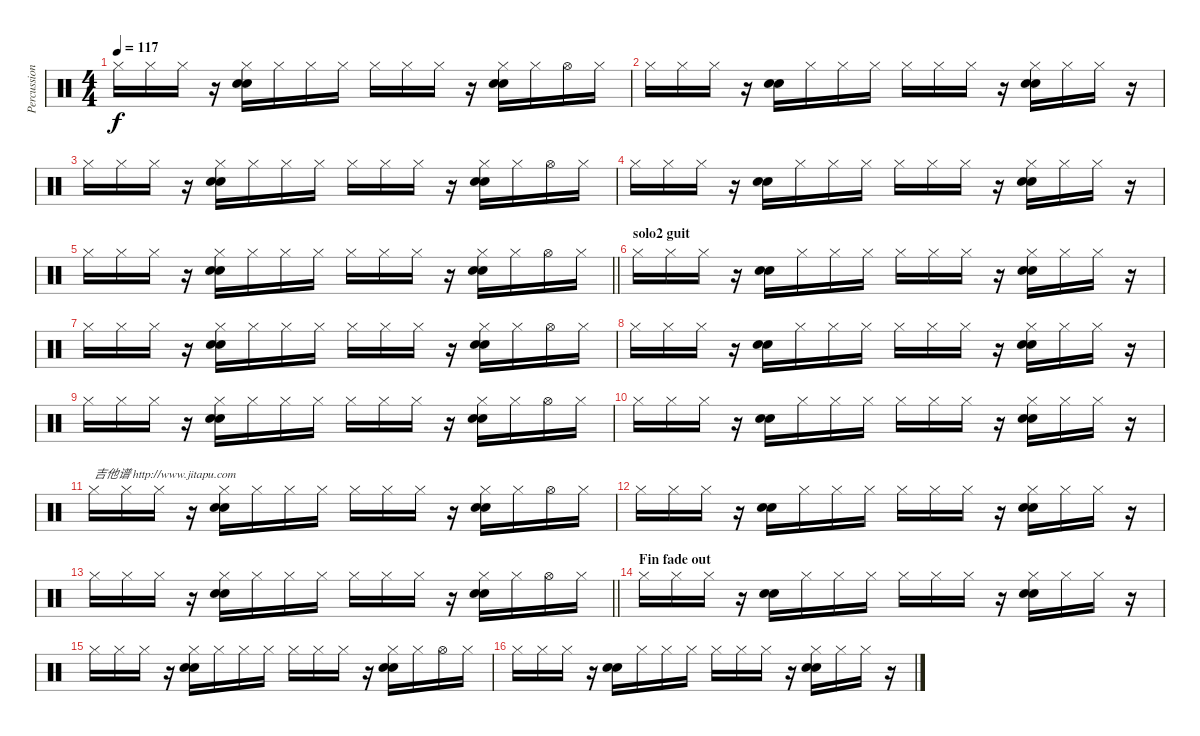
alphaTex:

\track ("Percussions" "Percussion") {instrument percussion}
\staff {score}
\articulation defaults
\ts (4 4)
\tempo 117
\clef neutral
\ks c "Hi-Hat (closed)".16{dy f} "Hi-Hat (closed)".16 "Hi-Hat (closed)".16
r.16 ("Hi-Hat (closed)" "Electric Snare (hit)" "Hand Clap (hit)").16 "Hi-Hat (closed)".16 "Hi-Hat (closed)".16 "Hi-Hat (closed)".16 "Hi-Hat (closed)".16 "Hi-Hat (closed)".16 "Hi-Hat (closed)".16 r.16 ("Hi-Hat (closed)" "Hand Clap (hit)" "Electric Snare (hit)").16 "Hi-Hat (closed)".16 "Hi-Hat (open)".16 "Hi-Hat (closed)".16 |
"Hi-Hat (closed)".16 "Hi-Hat (closed)".16 "Hi-Hat (closed)".16 r.16 ("Electric Snare (hit)" "Hand Clap (hit)").16 "Hi-Hat (closed)".16 "Hi-Hat (closed)".16 "Hi-Hat (closed)".16 "Hi-Hat (closed)".16 "Hi-Hat (closed)".16 "Hi-Hat (closed)".16 r.16 ("Hi-Hat (closed)" "Electric Snare (hit)" "Hand Clap (hit)").16 "Hi-Hat (closed)".16 "Hi-Hat (closed)".16 r.16 |
"Hi-Hat (closed)".16 "Hi-Hat (closed)".16 "Hi-Hat (closed)".16 r.16 ("Hi-Hat (closed)" "Electric Snare (hit)" "Hand Clap (hit)").16 "Hi-Hat (closed)".16 "Hi-Hat (closed)".16 "Hi-Hat (closed)".16 "Hi-Hat (closed)".16 "Hi-Hat (closed)".16 "Hi-Hat (closed)".16 r.16 ("Hi-Hat (closed)" "Hand Clap (hit)" "Electric Snare (hit)").16 "Hi-Hat (closed)".16 "Hi-Hat (open)".16 "Hi-Hat (closed)".16 |
"Hi-Hat (closed)".16 "Hi-Hat (closed)".16 "Hi-Hat (closed)".16 r.16 ("Electric Snare (hit)" "Hand Clap (hit)").16 "Hi-Hat (closed)".16 "Hi-Hat (closed)".16 "Hi-Hat (closed)".16 "Hi-Hat (closed)".16 "Hi-Hat (closed)".16 "Hi-Hat (closed)".16 r.16 ("Hi-Hat (closed)" "Electric Snare (hit)" "Hand Clap (hit)").16 "Hi-Hat (closed)".16 "Hi-Hat (closed)".16 r.16 |
\barLineRight lightlight "Hi-Hat (closed)".16 "Hi-Hat (closed)".16 "Hi-Hat (closed)".16
r.16 ("Hi-Hat (closed)" "Electric Snare (hit)" "Hand Clap (hit)").16 "Hi-Hat (closed)".16 "Hi-Hat (closed)".16 "Hi-Hat (closed)".16 "Hi-Hat (closed)".16 "Hi-Hat (closed)".16 "Hi-Hat (closed)".16 r.16 ("Hi-Hat (closed)" "Hand Clap (hit)" "Electric Snare (hit)").16 "Hi-Hat (closed)".16 "Hi-Hat (open)".16 "Hi-Hat (closed)".16 |
\section ("" "solo2 guit")
"Hi-Hat (closed)".16 "Hi-Hat (closed)".16 "Hi-Hat (closed)".16 r.16 ("Electric Snare (hit)" "Hand Clap (hit)").16 "Hi-Hat (closed)".16 "Hi-Hat (closed)".16 "Hi-Hat (closed)".16 "Hi-Hat (closed)".16 "Hi-Hat (closed)".16 "Hi-Hat (closed)".16 r.16 ("Hi-Hat (closed)" "Electric Snare (hit)" "Hand Clap (hit)").16 "Hi-Hat (closed)".16 "Hi-Hat (closed)".16 r.16 |
"Hi-Hat (closed)".16 "Hi-Hat (closed)".16 "Hi-Hat (closed)".16 r.16 ("Hi-Hat (closed)" "Electric Snare (hit)" "Hand Clap (hit)").16 "Hi-Hat (closed)".16 "Hi-Hat (closed)".16 "Hi-Hat (closed)".16 "Hi-Hat (closed)".16 "Hi-Hat (closed)".16 "Hi-Hat (closed)".16 r.16 ("Hi-Hat (closed)" "Hand Clap (hit)" "Electric Snare (hit)").16 "Hi-Hat (closed)".16 "Hi-Hat (open)".16 "Hi-Hat (closed)".16 |
"Hi-Hat (closed)".16 "Hi-Hat (closed)".16 "Hi-Hat (closed)".16 r.16 ("Electric Snare (hit)" "Hand Clap (hit)").16 "Hi-Hat (closed)".16 "Hi-Hat (closed)".16 "Hi-Hat (closed)".16 "Hi-Hat (closed)".16 "Hi-Hat (closed)".16 "Hi-Hat (closed)".16 r.16 ("Hi-Hat (closed)" "Electric Snare (hit)" "Hand Clap (hit)").16 "Hi-Hat (closed)".16 "Hi-Hat (closed)".16 r.16 |
"Hi-Hat (closed)".16 "Hi-Hat (closed)".16 "Hi-Hat (closed)".16 r.16 ("Hi-Hat (closed)" "Electric Snare (hit)" "Hand Clap (hit)").16 "Hi-Hat (closed)".16 "Hi-Hat (closed)".16 "Hi-Hat (closed)".16 "Hi-Hat (closed)".16 "Hi-Hat (closed)".16 "Hi-Hat (closed)".16 r.16 ("Hi-Hat (closed)" "Hand Clap (hit)" "Electric Snare (hit)").16 "Hi-Hat (closed)".16 "Hi-Hat (open)".16 "Hi-Hat (closed)".16 |
"Hi-Hat (closed)".16 "Hi-Hat (closed)".16 "Hi-Hat (closed)".16 r.16 ("Electric Snare (hit)" "Hand Clap (hit)").16 "Hi-Hat (closed)".16 "Hi-Hat (closed)".16 "Hi-Hat (closed)".16 "Hi-Hat (closed)".16 "Hi-Hat (closed)".16 "Hi-Hat (closed)".16 r.16 ("Hi-Hat (closed)" "Electric Snare (hit)" "Hand Clap (hit)").16 "Hi-Hat (closed)".16 "Hi-Hat (closed)".16 r.16 |
"Hi-Hat (closed)".16{txt "吉他谱 http://www.jitapu.com"} "Hi-Hat (closed)".16 "Hi-Hat (closed)".16 r.16 ("Hi-Hat (closed)" "Electric Snare (hit)" "Hand Clap (hit)").16 "Hi-Hat (closed)".16 "Hi-Hat (closed)".16 "Hi-Hat (closed)".16 "Hi-Hat (closed)".16 "Hi-Hat (closed)".16 "Hi-Hat (closed)".16 r.16 ("Hi-Hat (closed)" "Hand Clap (hit)" "Electric Snare (hit)").16 "Hi-Hat (closed)".16 "Hi-Hat (open)".16 "Hi-Hat (closed)".16 |
"Hi-Hat (closed)".16 "Hi-Hat (closed)".16 "Hi-Hat (closed)".16 r.16 ("Electric Snare (hit)" "Hand Clap (hit)").16 "Hi-Hat (closed)".16 "Hi-Hat (closed)".16 "Hi-Hat (closed)".16 "Hi-Hat (closed)".16 "Hi-Hat (closed)".16 "Hi-Hat (closed)".16 r.16 ("Hi-Hat (closed)" "Electric Snare (hit)" "Hand Clap (hit)").16 "Hi-Hat (closed)".16 "Hi-Hat (closed)".16 r.16 |
\barLineRight lightlight "Hi-Hat (closed)".16 "Hi-Hat (closed)".16 "Hi-Hat (closed)".16
r.16 ("Hi-Hat (closed)" "Electric Snare (hit)" "Hand Clap (hit)").16 "Hi-Hat (closed)".16 "Hi-Hat (closed)".16 "Hi-Hat (closed)".16 "Hi-Hat (closed)".16 "Hi-Hat (closed)".16 "Hi-Hat (closed)".16 r.16 ("Hi-Hat (closed)" "Hand Clap (hit)" "Electric Snare (hit)").16 "Hi-Hat (closed)".16 "Hi-Hat (open)".16 "Hi-Hat (closed)".16 |
\section ("" "Fin fade out")
"Hi-Hat (closed)".16 "Hi-Hat (closed)".16 "Hi-Hat (closed)".16 r.16 ("Electric Snare (hit)" "Hand Clap (hit)").16 "Hi-Hat (closed)".16 "Hi-Hat (closed)".16 "Hi-Hat (closed)".16 "Hi-Hat (closed)".16 "Hi-Hat (closed)".16 "Hi-Hat (closed)".16 r.16 ("Hi-Hat (closed)" "Electric Snare (hit)" "Hand Clap (hit)").16 "Hi-Hat (closed)".16 "Hi-Hat (closed)".16 r.16 |
"Hi-Hat (closed)".16 "Hi-Hat (closed)".16 "Hi-Hat (closed)".16 r.16 ("Hi-Hat (closed)" "Electric Snare (hit)" "Hand Clap (hit)").16 "Hi-Hat (closed)".16 "Hi-Hat (closed)".16 "Hi-Hat (closed)".16 "Hi-Hat (closed)".16 "Hi-Hat (closed)".16 "Hi-Hat (closed)".16 r.16 ("Hi-Hat (closed)" "Hand Clap (hit)" "Electric Snare (hit)").16 "Hi-Hat (closed)".16 "Hi-Hat (open)".16 "Hi-Hat (closed)".16 |
"Hi-Hat (closed)".16 "Hi-Hat (closed)".16 "Hi-Hat (closed)".16 r.16 ("Electric Snare (hit)" "Hand Clap (hit)").16 "Hi-Hat (closed)".16 "Hi-Hat (closed)".16 "Hi-Hat (closed)".16 "Hi-Hat (closed)".16 "Hi-Hat (closed)".16 "Hi-Hat (closed)".16 r.16 ("Hi-Hat (closed)" "Electric Snare (hit)" "Hand Clap (hit)").16 "Hi-Hat (closed)".16 "Hi-Hat (closed)".16 r.16
